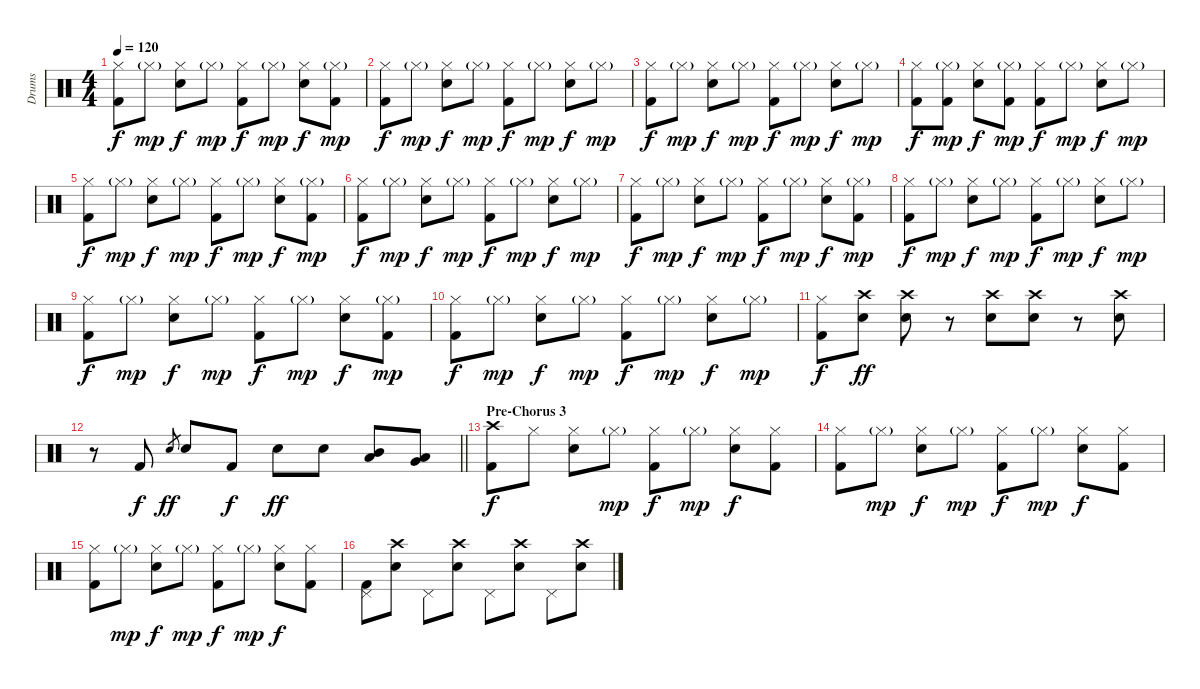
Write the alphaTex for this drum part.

\track ("Drums" "Drums") {instrument percussion}
\staff {score}
\articulation defaults
\ts (4 4)
\tempo 120
\clef neutral
\ks c
("Hi-Hat (closed)" "Kick (hit) 2").8{dy f} "Hi-Hat (closed)"{g}.8{dy mp} ("Hi-Hat (closed)" "Electric Snare (hit)").8{dy f} "Hi-Hat (closed)"{g}.8{dy mp} ("Hi-Hat (closed)" "Kick (hit) 2").8{dy f} "Hi-Hat (closed)"{g}.8{dy mp} ("Hi-Hat (closed)" "Electric Snare (hit)").8{dy f} ("Hi-Hat (closed)"{g} "Kick (hit) 2").8{dy mp} |
("Hi-Hat (closed)" "Kick (hit) 2").8{dy f} "Hi-Hat (closed)"{g}.8{dy mp} ("Hi-Hat (closed)" "Electric Snare (hit)").8{dy f} "Hi-Hat (closed)"{g}.8{dy mp} ("Hi-Hat (closed)" "Kick (hit) 2").8{dy f} "Hi-Hat (closed)"{g}.8{dy mp} ("Hi-Hat (closed)" "Electric Snare (hit)").8{dy f} "Hi-Hat (closed)"{g}.8{dy mp} |
("Hi-Hat (closed)" "Kick (hit) 2").8{dy f} "Hi-Hat (closed)"{g}.8{dy mp} ("Hi-Hat (closed)" "Electric Snare (hit)").8{dy f} "Hi-Hat (closed)"{g}.8{dy mp} ("Hi-Hat (closed)" "Kick (hit) 2").8{dy f} "Hi-Hat (closed)"{g}.8{dy mp} ("Hi-Hat (closed)" "Electric Snare (hit)").8{dy f} "Hi-Hat (closed)"{g}.8{dy mp} |
("Hi-Hat (closed)" "Kick (hit) 2").8{dy f} ("Hi-Hat (closed)"{g} "Kick (hit) 2").8{dy mp} ("Hi-Hat (closed)" "Electric Snare (hit)").8{dy f} ("Hi-Hat (closed)"{g} "Kick (hit) 2").8{dy mp} ("Hi-Hat (closed)" "Kick (hit) 2").8{dy f} "Hi-Hat (closed)"{g}.8{dy mp} ("Hi-Hat (closed)" "Electric Snare (hit)").8{dy f} "Hi-Hat (closed)"{g}.8{dy mp} |
("Hi-Hat (closed)" "Kick (hit) 2").8{dy f} "Hi-Hat (closed)"{g}.8{dy mp} ("Hi-Hat (closed)" "Electric Snare (hit)").8{dy f} "Hi-Hat (closed)"{g}.8{dy mp} ("Hi-Hat (closed)" "Kick (hit) 2").8{dy f} "Hi-Hat (closed)"{g}.8{dy mp} ("Hi-Hat (closed)" "Electric Snare (hit)").8{dy f} ("Hi-Hat (closed)"{g} "Kick (hit) 2").8{dy mp} |
("Hi-Hat (closed)" "Kick (hit) 2").8{dy f} "Hi-Hat (closed)"{g}.8{dy mp} ("Hi-Hat (closed)" "Electric Snare (hit)").8{dy f} "Hi-Hat (closed)"{g}.8{dy mp} ("Hi-Hat (closed)" "Kick (hit) 2").8{dy f} "Hi-Hat (closed)"{g}.8{dy mp} ("Hi-Hat (closed)" "Electric Snare (hit)").8{dy f} "Hi-Hat (closed)"{g}.8{dy mp} |
("Hi-Hat (closed)" "Kick (hit) 2").8{dy f} "Hi-Hat (closed)"{g}.8{dy mp} ("Hi-Hat (closed)" "Electric Snare (hit)").8{dy f} "Hi-Hat (closed)"{g}.8{dy mp} ("Hi-Hat (closed)" "Kick (hit) 2").8{dy f} "Hi-Hat (closed)"{g}.8{dy mp} ("Hi-Hat (closed)" "Electric Snare (hit)").8{dy f} ("Hi-Hat (closed)"{g} "Kick (hit) 2").8{dy mp} |
("Hi-Hat (closed)" "Kick (hit) 2").8{dy f} "Hi-Hat (closed)"{g}.8{dy mp} ("Hi-Hat (closed)" "Electric Snare (hit)").8{dy f} "Hi-Hat (closed)"{g}.8{dy mp} ("Hi-Hat (closed)" "Kick (hit) 2").8{dy f} "Hi-Hat (closed)"{g}.8{dy mp} ("Hi-Hat (closed)" "Electric Snare (hit)").8{dy f} "Hi-Hat (closed)"{g}.8{dy mp} |
("Hi-Hat (closed)" "Kick (hit) 2").8{dy f} "Hi-Hat (closed)"{g}.8{dy mp} ("Hi-Hat (closed)" "Electric Snare (hit)").8{dy f} "Hi-Hat (closed)"{g}.8{dy mp} ("Hi-Hat (closed)" "Kick (hit) 2").8{dy f} "Hi-Hat (closed)"{g}.8{dy mp} ("Hi-Hat (closed)" "Electric Snare (hit)").8{dy f} ("Hi-Hat (closed)"{g} "Kick (hit) 2").8{dy mp} |
("Hi-Hat (closed)" "Kick (hit) 2").8{dy f} "Hi-Hat (closed)"{g}.8{dy mp} ("Hi-Hat (closed)" "Electric Snare (hit)").8{dy f} "Hi-Hat (closed)"{g}.8{dy mp} ("Hi-Hat (closed)" "Kick (hit) 2").8{dy f} "Hi-Hat (closed)"{g}.8{dy mp} ("Hi-Hat (closed)" "Electric Snare (hit)").8{dy f} "Hi-Hat (closed)"{g}.8{dy mp} |
("Hi-Hat (closed)" "Kick (hit) 2").8{dy f} ("Crash high (hit)" "Electric Snare (hit)").8{dy ff} ("Crash high (hit)" "Electric Snare (hit)").8 r.8 ("Crash high (hit)" "Electric Snare (hit)").8 ("Crash high (hit)" "Electric Snare (hit)").8 r.8 ("Crash high (hit)" "Electric Snare (hit)").8 |
\barLineRight lightlight
r.8 "Kick (hit) 2".8{dy f} "Electric Snare (hit)".8{gr dy ff} "Electric Snare (hit)".8 "Kick (hit) 2".8{dy f} "Electric Snare (hit)".8{dy ff} "Electric Snare (hit)".8 ("Mid Tom (hit)" "Low Tom (hit)").8 ("Low Tom (hit)" "Very Low Tom (hit)").8 |
\section ("" "Pre-Chorus 3")
("Crash high (hit)" "Kick (hit) 2").8{dy f} "Hi-Hat (closed)".8 ("Hi-Hat (closed)" "Electric Snare (hit)").8 "Hi-Hat (closed)"{g}.8{dy mp} ("Hi-Hat (closed)" "Kick (hit) 2").8{dy f} "Hi-Hat (closed)"{g}.8{dy mp} ("Hi-Hat (closed)" "Electric Snare (hit)").8{dy f} ("Hi-Hat (closed)" "Kick (hit) 2").8 |
("Hi-Hat (closed)" "Kick (hit) 2").8 "Hi-Hat (closed)"{g}.8{dy mp} ("Hi-Hat (closed)" "Electric Snare (hit)").8{dy f} "Hi-Hat (closed)"{g}.8{dy mp} ("Hi-Hat (closed)" "Kick (hit) 2").8{dy f} "Hi-Hat (closed)"{g}.8{dy mp} ("Hi-Hat (closed)" "Electric Snare (hit)").8{dy f} ("Hi-Hat (closed)" "Kick (hit) 2").8 |
("Hi-Hat (closed)" "Kick (hit) 2").8 "Hi-Hat (closed)"{g}.8{dy mp} ("Hi-Hat (closed)" "Electric Snare (hit)").8{dy f} "Hi-Hat (closed)"{g}.8{dy mp} ("Hi-Hat (closed)" "Kick (hit) 2").8{dy f} "Hi-Hat (closed)"{g}.8{dy mp} ("Hi-Hat (closed)" "Electric Snare (hit)").8{dy f} ("Hi-Hat (closed)" "Kick (hit) 2").8 |
("Pedal Hi-Hat (hit)" "Kick (hit) 2").8 ("Crash high (hit)" "Electric Snare (hit)").8 "Pedal Hi-Hat (hit)".8 ("Crash high (hit)" "Electric Snare (hit)").8 "Pedal Hi-Hat (hit)".8 ("Crash high (hit)" "Electric Snare (hit)").8 "Pedal Hi-Hat (hit)".8 ("Crash high (hit)" "Electric Snare (hit)").8
